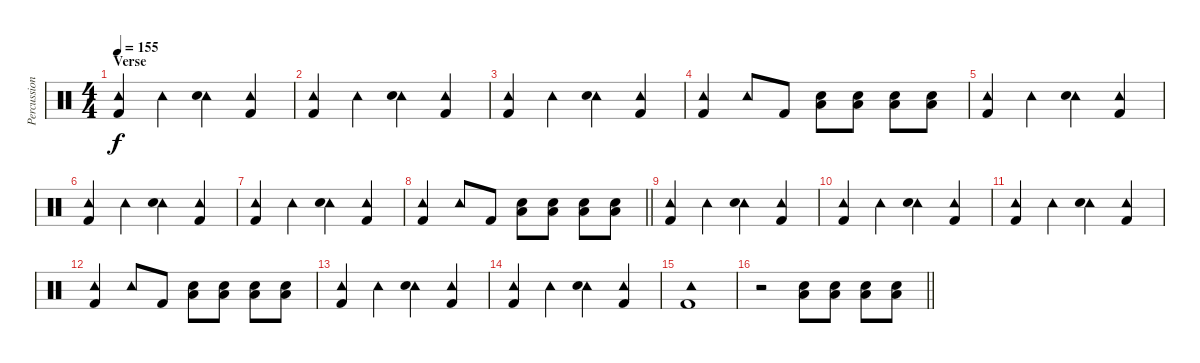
\track ("Percussion" "Percussion") {instrument percussion}
\staff {score}
\articulation defaults
\ts (4 4)
\section ("" "Verse")
\tempo 155
\clef neutral
\ks c
("Tambourine (hit)" "Kick (hit) 2").4{dy f} "Tambourine (hit)".4 ("Tambourine (hit)" "Electric Snare (hit)").4 ("Tambourine (hit)" "Kick (hit) 2").4 |
("Tambourine (hit)" "Kick (hit) 2").4 "Tambourine (hit)".4 ("Tambourine (hit)" "Electric Snare (hit)").4 ("Tambourine (hit)" "Kick (hit) 2").4 |
("Tambourine (hit)" "Kick (hit) 2").4 "Tambourine (hit)".4 ("Tambourine (hit)" "Electric Snare (hit)").4 ("Tambourine (hit)" "Kick (hit) 2").4 |
("Tambourine (hit)" "Kick (hit) 2").4 "Tambourine (hit)".8 "Kick (hit) 2".8 ("Low Floor Tom (hit)" "Electric Snare (hit)").8 ("Low Floor Tom (hit)" "Electric Snare (hit)").8 ("Low Floor Tom (hit)" "Electric Snare (hit)").8 ("Low Floor Tom (hit)" "Electric Snare (hit)").8 |
("Tambourine (hit)" "Kick (hit) 2").4 "Tambourine (hit)".4 ("Tambourine (hit)" "Electric Snare (hit)").4 ("Tambourine (hit)" "Kick (hit) 2").4 |
("Tambourine (hit)" "Kick (hit) 2").4 "Tambourine (hit)".4 ("Tambourine (hit)" "Electric Snare (hit)").4 ("Tambourine (hit)" "Kick (hit) 2").4 |
("Tambourine (hit)" "Kick (hit) 2").4 "Tambourine (hit)".4 ("Tambourine (hit)" "Electric Snare (hit)").4 ("Tambourine (hit)" "Kick (hit) 2").4 |
\barLineRight lightlight
("Tambourine (hit)" "Kick (hit) 2").4 "Tambourine (hit)".8 "Kick (hit) 2".8 ("Low Floor Tom (hit)" "Electric Snare (hit)").8 ("Low Floor Tom (hit)" "Electric Snare (hit)").8 ("Low Floor Tom (hit)" "Electric Snare (hit)").8 ("Low Floor Tom (hit)" "Electric Snare (hit)").8 |
("Tambourine (hit)" "Kick (hit) 2").4 "Tambourine (hit)".4 ("Tambourine (hit)" "Electric Snare (hit)").4 ("Tambourine (hit)" "Kick (hit) 2").4 |
("Tambourine (hit)" "Kick (hit) 2").4 "Tambourine (hit)".4 ("Tambourine (hit)" "Electric Snare (hit)").4 ("Tambourine (hit)" "Kick (hit) 2").4 |
("Tambourine (hit)" "Kick (hit) 2").4 "Tambourine (hit)".4 ("Tambourine (hit)" "Electric Snare (hit)").4 ("Tambourine (hit)" "Kick (hit) 2").4 |
("Tambourine (hit)" "Kick (hit) 2").4 "Tambourine (hit)".8 "Kick (hit) 2".8 ("Low Floor Tom (hit)" "Electric Snare (hit)").8 ("Low Floor Tom (hit)" "Electric Snare (hit)").8 ("Low Floor Tom (hit)" "Electric Snare (hit)").8 ("Low Floor Tom (hit)" "Electric Snare (hit)").8 |
("Tambourine (hit)" "Kick (hit) 2").4 "Tambourine (hit)".4 ("Tambourine (hit)" "Electric Snare (hit)").4 ("Tambourine (hit)" "Kick (hit) 2").4 |
("Tambourine (hit)" "Kick (hit) 2").4 "Tambourine (hit)".4 ("Tambourine (hit)" "Electric Snare (hit)").4 ("Tambourine (hit)" "Kick (hit) 2").4 |
("Tambourine (hit)" "Kick (hit) 2").1 |
\barLineRight lightlight
r.2 ("Low Floor Tom (hit)" "Electric Snare (hit)").8 ("Low Floor Tom (hit)" "Electric Snare (hit)").8 ("Low Floor Tom (hit)" "Electric Snare (hit)").8 ("Low Floor Tom (hit)" "Electric Snare (hit)").8
